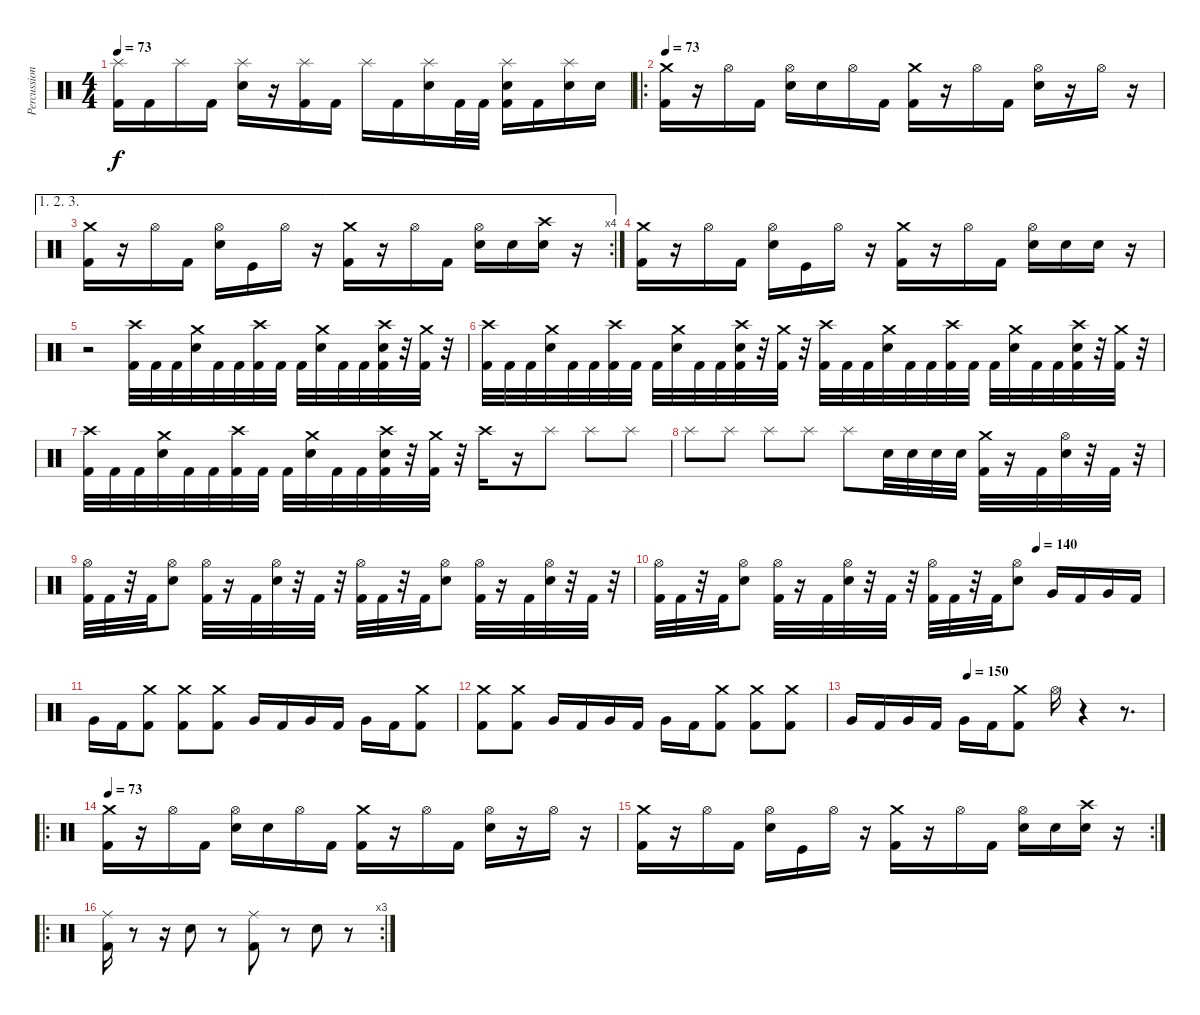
\track ("Percussion" "Percussion") {instrument percussion}
\staff {score}
\articulation defaults
\ts (4 4)
\tempo 73
\clef neutral
\ks c
("Splash (hit)" "Kick (hit) 2").16{dy f} "Kick (hit) 2".16 "Splash (hit)".16 "Kick (hit) 2".16 ("Splash (hit)" "Electric Snare (hit)").16 r.16 ("Splash (hit)" "Kick (hit) 2").16 "Kick (hit) 2".16 "Splash (hit)".16 "Kick (hit) 2".16 ("Splash (hit)" "Electric Snare (hit)").16 "Kick (hit) 2".32 "Kick (hit) 2".32 ("Splash (hit)" "Electric Snare (hit)" "Kick (hit) 2").16 "Kick (hit) 2".16 ("Splash (hit)" "Electric Snare (hit)").16 "Electric Snare (hit)".16 |
\ro
\tempo 73
("Crash medium (hit)" "Kick (hit) 2").16 r.16 "Hi-Hat (open)".16 "Kick (hit) 2".16 ("Hi-Hat (open)" "Electric Snare (hit)").16 "Electric Snare (hit)".16 "Hi-Hat (open)".16 "Kick (hit) 2".16 ("Crash medium (hit)" "Kick (hit) 2").16 r.16 "Hi-Hat (open)".16 "Kick (hit) 2".16 ("Hi-Hat (open)" "Electric Snare (hit)").16 r.16 "Hi-Hat (open)".16 r.16 |
\ae (1 2 3)
\rc 4
("Crash medium (hit)" "Kick (hit) 2").16 r.16 "Hi-Hat (open)".16 "Kick (hit) 2".16 ("Hi-Hat (open)" "Electric Snare (hit)").16 "Kick (hit)".16 "Hi-Hat (open)".16 r.16 ("Crash medium (hit)" "Kick (hit) 2").16 r.16 "Hi-Hat (open)".16 "Kick (hit) 2".16 ("Hi-Hat (open)" "Electric Snare (hit)").16 "Electric Snare (hit)".16 ("Crash high (hit)" "Electric Snare (hit)").16 r.16 |
("Crash medium (hit)" "Kick (hit) 2").16 r.16 "Hi-Hat (open)".16 "Kick (hit) 2".16 ("Hi-Hat (open)" "Electric Snare (hit)").16 "Kick (hit)".16 "Hi-Hat (open)".16 r.16 ("Crash medium (hit)" "Kick (hit) 2").16 r.16 "Hi-Hat (open)".16 "Kick (hit) 2".16 ("Hi-Hat (open)" "Electric Snare (hit)").16 "Electric Snare (hit)".16 "Electric Snare (hit)".16 r.16 |
r.2 ("Crash high (hit)" "Kick (hit) 2").32 "Kick (hit) 2".32 "Kick (hit) 2".32 ("Crash medium (hit)" "Electric Snare (hit)").32 "Kick (hit) 2".32 "Kick (hit) 2".32 ("Crash high (hit)" "Kick (hit) 2").32 "Kick (hit) 2".32 "Kick (hit) 2".32 ("Crash medium (hit)" "Electric Snare (hit)").32 "Kick (hit) 2".32 "Kick (hit) 2".32 ("Crash high (hit)" "Electric Snare (hit)" "Kick (hit) 2").32 r.32 ("Crash medium (hit)" "Kick (hit) 2").32 r.32 |
("Crash high (hit)" "Kick (hit) 2").32 "Kick (hit) 2".32 "Kick (hit) 2".32 ("Crash medium (hit)" "Electric Snare (hit)").32 "Kick (hit) 2".32 "Kick (hit) 2".32 ("Crash high (hit)" "Kick (hit) 2").32 "Kick (hit) 2".32 "Kick (hit) 2".32 ("Crash medium (hit)" "Electric Snare (hit)").32 "Kick (hit) 2".32 "Kick (hit) 2".32 ("Crash high (hit)" "Electric Snare (hit)" "Kick (hit) 2").32 r.32 ("Crash medium (hit)" "Kick (hit) 2").32 r.32 ("Crash high (hit)" "Kick (hit) 2").32 "Kick (hit) 2".32 "Kick (hit) 2".32 ("Crash medium (hit)" "Electric Snare (hit)").32 "Kick (hit) 2".32 "Kick (hit) 2".32 ("Crash high (hit)" "Kick (hit) 2").32 "Kick (hit) 2".32 "Kick (hit) 2".32 ("Crash medium (hit)" "Electric Snare (hit)").32 "Kick (hit) 2".32 "Kick (hit) 2".32 ("Crash high (hit)" "Electric Snare (hit)" "Kick (hit) 2").32 r.32 ("Crash medium (hit)" "Kick (hit) 2").32 r.32 |
("Crash high (hit)" "Kick (hit) 2").32 "Kick (hit) 2".32 "Kick (hit) 2".32 ("Crash medium (hit)" "Electric Snare (hit)").32 "Kick (hit) 2".32 "Kick (hit) 2".32 ("Crash high (hit)" "Kick (hit) 2").32 "Kick (hit) 2".32 "Kick (hit) 2".32 ("Crash medium (hit)" "Electric Snare (hit)").32 "Kick (hit) 2".32 "Kick (hit) 2".32 ("Crash high (hit)" "Electric Snare (hit)" "Kick (hit) 2").32 r.32 ("Crash medium (hit)" "Kick (hit) 2").32 r.32 "Crash high (hit)".16 r.16 "Splash (hit)".8 "Splash (hit)".8 "Splash (hit)".8 |
"Splash (hit)".8 "Splash (hit)".8 "Splash (hit)".8 "Splash (hit)".8 "Splash (hit)".8 "Electric Snare (hit)".32 "Electric Snare (hit)".32 "Electric Snare (hit)".32 "Electric Snare (hit)".32 ("Crash medium (hit)" "Kick (hit) 2").32 r.16 "Kick (hit) 2".32 ("Hi-Hat (open)" "Electric Snare (hit)").32 r.32 "Kick (hit) 2".32 r.32 |
("Hi-Hat (open)" "Kick (hit) 2").32 "Kick (hit) 2".32 r.32 "Kick (hit) 2".32 ("Hi-Hat (open)" "Electric Snare (hit)").8 ("Hi-Hat (open)" "Kick (hit) 2").32 r.16 "Kick (hit) 2".32 ("Hi-Hat (open)" "Electric Snare (hit)").32 r.32 "Kick (hit) 2".32 r.32 ("Hi-Hat (open)" "Kick (hit) 2").32 "Kick (hit) 2".32 r.32 "Kick (hit) 2".32 ("Hi-Hat (open)" "Electric Snare (hit)").8 ("Hi-Hat (open)" "Kick (hit) 2").32 r.16 "Kick (hit) 2".32 ("Hi-Hat (open)" "Electric Snare (hit)").32 r.32 "Kick (hit) 2".32 r.32 |
\tempo (140 0.75)
("Hi-Hat (open)" "Kick (hit) 2").32 "Kick (hit) 2".32 r.32 "Kick (hit) 2".32 ("Hi-Hat (open)" "Electric Snare (hit)").8 ("Hi-Hat (open)" "Kick (hit) 2").32 r.16 "Kick (hit) 2".32 ("Hi-Hat (open)" "Electric Snare (hit)").32 r.32 "Kick (hit) 2".32 r.32 ("Hi-Hat (open)" "Kick (hit) 2").32 "Kick (hit) 2".32 r.32 "Kick (hit) 2".32 ("Hi-Hat (open)" "Electric Snare (hit)").8 "Very Low Tom (hit)".16 "Kick (hit) 2".16 "Very Low Tom (hit)".16 "Kick (hit) 2".16 |
"Very Low Tom (hit)".16 "Kick (hit) 2".16 ("Crash medium (hit)" "Kick (hit) 2").8 ("Crash medium (hit)" "Kick (hit) 2").8 ("Crash medium (hit)" "Kick (hit) 2").8 "Very Low Tom (hit)".16 "Kick (hit) 2".16 "Very Low Tom (hit)".16 "Kick (hit) 2".16 "Very Low Tom (hit)".16 "Kick (hit) 2".16 ("Crash medium (hit)" "Kick (hit) 2").8 |
("Crash medium (hit)" "Kick (hit) 2").8 ("Crash medium (hit)" "Kick (hit) 2").8 "Very Low Tom (hit)".16 "Kick (hit) 2".16 "Very Low Tom (hit)".16 "Kick (hit) 2".16 "Very Low Tom (hit)".16 "Kick (hit) 2".16 ("Crash medium (hit)" "Kick (hit) 2").8 ("Crash medium (hit)" "Kick (hit) 2").8 ("Crash medium (hit)" "Kick (hit) 2").8 |
\tempo (150 0.375)
"Very Low Tom (hit)".16 "Kick (hit) 2".16 "Very Low Tom (hit)".16 "Kick (hit) 2".16 "Very Low Tom (hit)".16 "Kick (hit) 2".16 ("Crash medium (hit)" "Kick (hit) 2").8 "Hi-Hat (open)".16 r.4 r.8{d} |
\ro
\tempo 73
("Crash medium (hit)" "Kick (hit) 2").16 r.16 "Hi-Hat (open)".16 "Kick (hit) 2".16 ("Hi-Hat (open)" "Electric Snare (hit)").16 "Electric Snare (hit)".16 "Hi-Hat (open)".16 "Kick (hit) 2".16 ("Crash medium (hit)" "Kick (hit) 2").16 r.16 "Hi-Hat (open)".16 "Kick (hit) 2".16 ("Hi-Hat (open)" "Electric Snare (hit)").16 r.16 "Hi-Hat (open)".16 r.16 |
\rc 2
("Crash medium (hit)" "Kick (hit) 2").16 r.16 "Hi-Hat (open)".16 "Kick (hit) 2".16 ("Hi-Hat (open)" "Electric Snare (hit)").16 "Kick (hit)".16 "Hi-Hat (open)".16 r.16 ("Crash medium (hit)" "Kick (hit) 2").16 r.16 "Hi-Hat (open)".16 "Kick (hit) 2".16 ("Hi-Hat (open)" "Electric Snare (hit)").16 "Electric Snare (hit)".16 ("Crash high (hit)" "Electric Snare (hit)").16 r.16 |
\ro
\rc 3
("Ride (middle)" "Kick (hit) 2").16 r.8 r.16 "Electric Snare (hit)".8 r.8 ("Ride (middle)" "Kick (hit) 2").8 r.8 "Electric Snare (hit)".8 r.8
